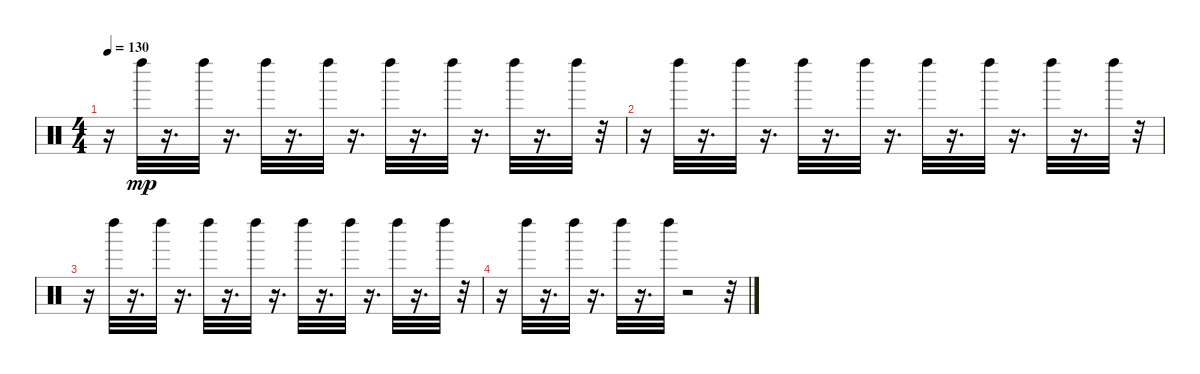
\track "" {instrument percussion}
\staff {score}
\articulation defaults
\ts (4 4)
\tempo 130
\clef neutral
\ks c
r.16{dy mp} "Left Maraca (hit)".32 r.16{d} "Left Maraca (hit)".32 r.16{d} "Left Maraca (hit)".32 r.16{d} "Left Maraca (hit)".32 r.16{d} "Left Maraca (hit)".32 r.16{d} "Left Maraca (hit)".32 r.16{d} "Left Maraca (hit)".32 r.16{d} "Left Maraca (hit)".32 r.32 |
r.16 "Left Maraca (hit)".32 r.16{d} "Left Maraca (hit)".32 r.16{d} "Left Maraca (hit)".32 r.16{d} "Left Maraca (hit)".32 r.16{d} "Left Maraca (hit)".32 r.16{d} "Left Maraca (hit)".32 r.16{d} "Left Maraca (hit)".32 r.16{d} "Left Maraca (hit)".32 r.32 |
r.16 "Left Maraca (hit)".32 r.16{d} "Left Maraca (hit)".32 r.16{d} "Left Maraca (hit)".32 r.16{d} "Left Maraca (hit)".32 r.16{d} "Left Maraca (hit)".32 r.16{d} "Left Maraca (hit)".32 r.16{d} "Left Maraca (hit)".32 r.16{d} "Left Maraca (hit)".32 r.32 |
r.16 "Left Maraca (hit)".32 r.16{d} "Left Maraca (hit)".32 r.16{d} "Left Maraca (hit)".32 r.16{d} "Left Maraca (hit)".32 r.2 r.32
